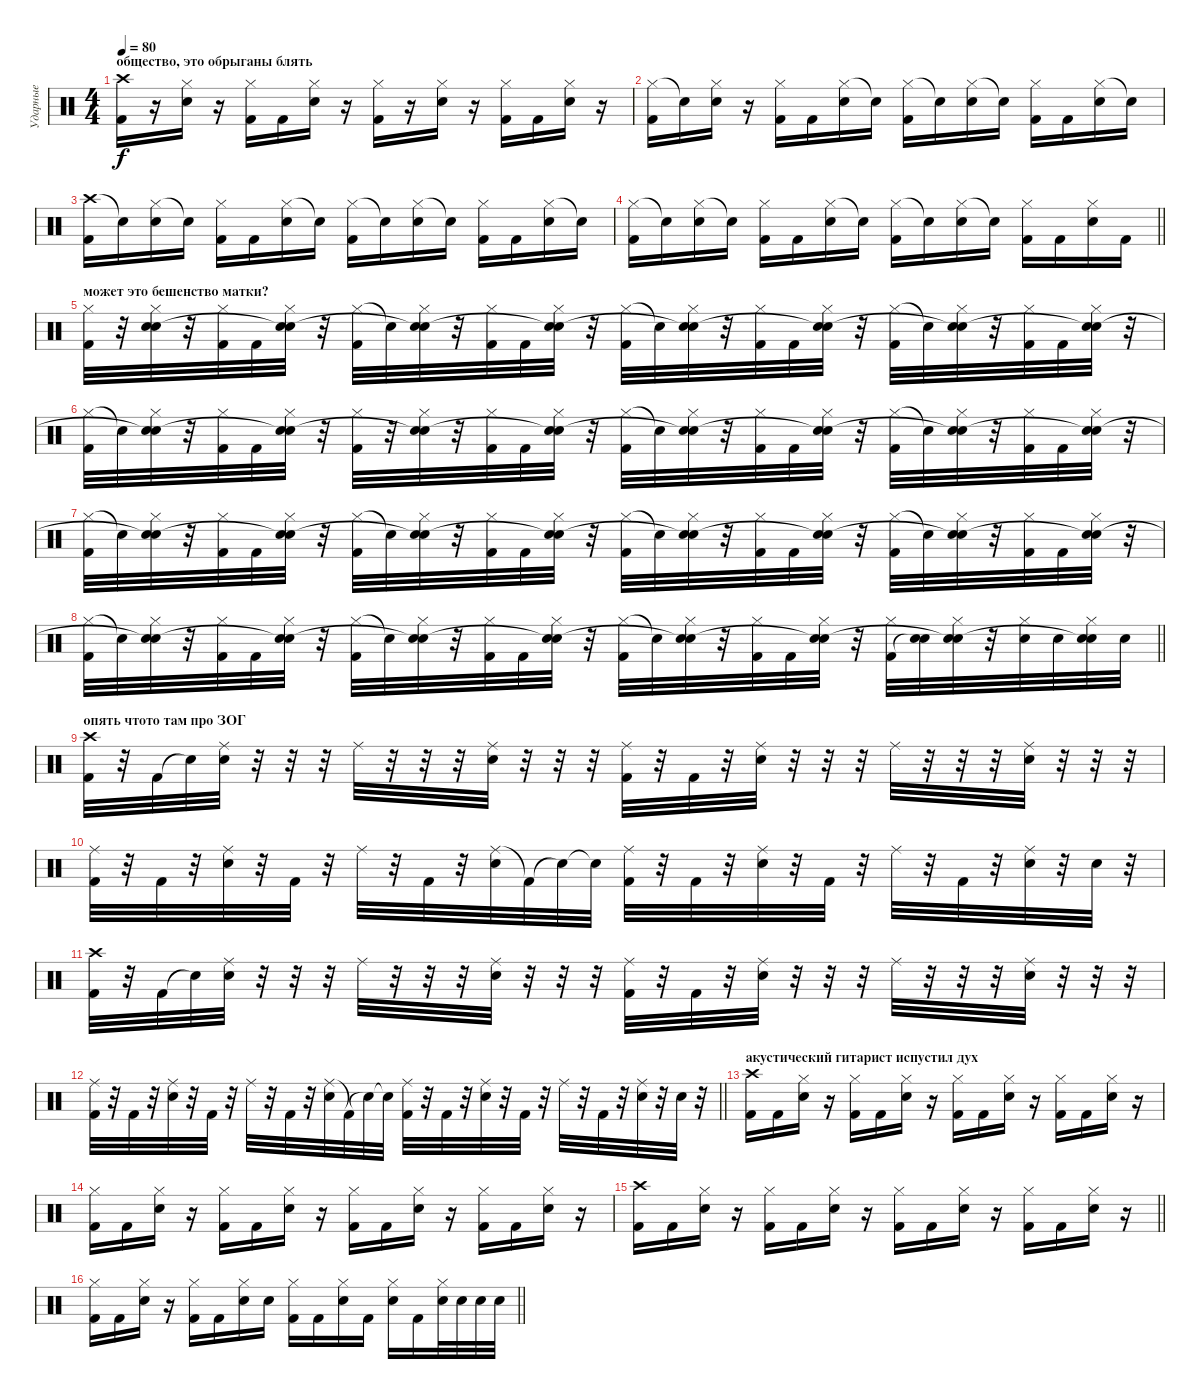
\track ("Ударные" "Ударные") {instrument percussion}
\staff {score}
\articulation defaults
\ts (4 4)
\section ("" "общество, это обрыганы блять")
\tempo 80
\clef neutral
\ks c
("Crash high (hit)" "Kick (hit) 2").16{dy f} r.16 ("Hi-Hat (closed)" "Snare (hit) 2").16 r.16 ("Hi-Hat (closed)" "Kick (hit) 2").16 "Kick (hit) 2".16 ("Hi-Hat (closed)" "Snare (hit) 2").16 r.16 ("Hi-Hat (closed)" "Kick (hit) 2").16 r.16 ("Hi-Hat (closed)" "Snare (hit) 2").16 r.16 ("Hi-Hat (closed)" "Kick (hit) 2").16 "Kick (hit) 2".16 ("Hi-Hat (closed)" "Snare (hit) 2").16 r.16 |
("Hi-Hat (closed)" "Kick (hit) 2").16 "Snare (hit)"{t}.16 ("Hi-Hat (closed)" "Snare (hit) 2").16 r.16 ("Hi-Hat (closed)" "Kick (hit) 2").16 "Kick (hit) 2".16 ("Hi-Hat (closed)" "Snare (hit) 2").16 "Snare (hit)"{t}.16 ("Hi-Hat (closed)" "Kick (hit) 2").16 "Snare (hit) 2"{t}.16 ("Hi-Hat (closed)" "Snare (hit) 2").16 "Snare (hit)"{t}.16 ("Hi-Hat (closed)" "Kick (hit) 2").16 "Kick (hit) 2".16 ("Hi-Hat (closed)" "Snare (hit) 2").16 "Snare (hit)"{t}.16 |
("Crash high (hit)" "Kick (hit) 2").16 "Snare (hit)"{t}.16 ("Hi-Hat (closed)" "Snare (hit) 2").16 "Snare (hit)"{t}.16 ("Hi-Hat (closed)" "Kick (hit) 2").16 "Kick (hit) 2".16 ("Hi-Hat (closed)" "Snare (hit) 2").16 "Snare (hit)"{t}.16 ("Hi-Hat (closed)" "Kick (hit) 2").16 "Snare (hit) 2"{t}.16 ("Hi-Hat (closed)" "Snare (hit) 2").16 "Snare (hit)"{t}.16 ("Hi-Hat (closed)" "Kick (hit) 2").16 "Kick (hit) 2".16 ("Hi-Hat (closed)" "Snare (hit) 2").16 "Snare (hit)"{t}.16 |
\barLineRight lightlight
("Hi-Hat (closed)" "Kick (hit) 2").16 "Snare (hit)"{t}.16 ("Hi-Hat (closed)" "Snare (hit) 2").16 "Snare (hit)"{t}.16 ("Hi-Hat (closed)" "Kick (hit) 2").16 "Kick (hit) 2".16 ("Hi-Hat (closed)" "Snare (hit) 2").16 "Snare (hit)"{t}.16 ("Hi-Hat (closed)" "Kick (hit) 2").16 "Snare (hit) 2"{t}.16 ("Hi-Hat (closed)" "Snare (hit) 2").16 "Snare (hit)"{t}.16 ("Hi-Hat (closed)" "Kick (hit) 2").16 "Kick (hit) 2".16 ("Hi-Hat (closed)" "Snare (hit) 2").16 "Kick (hit) 2".16 |
\section ("" "может это бешенство матки?")
("Hi-Hat (closed)" "Kick (hit) 2").32 r.32 ("Hi-Hat (closed)" "Snare (hit) 2" "Snare (hit)").32 r.32 ("Hi-Hat (closed)" "Kick (hit) 2").32 "Kick (hit) 2".32 ("Hi-Hat (closed)" "Snare (hit) 2" "Snare (hit)"{t}).32 r.32 ("Hi-Hat (closed)" "Kick (hit) 2").32 "Snare (hit)"{t}.32 ("Hi-Hat (closed)" "Snare (hit) 2" "Snare (hit)"{t}).32 r.32 ("Hi-Hat (closed)" "Kick (hit) 2").32 "Kick (hit) 2".32 ("Hi-Hat (closed)" "Snare (hit) 2" "Snare (hit)"{t}).32 r.32 ("Hi-Hat (closed)" "Kick (hit) 2").32 "Snare (hit)"{t}.32 ("Hi-Hat (closed)" "Snare (hit) 2" "Snare (hit)"{t}).32 r.32 ("Hi-Hat (closed)" "Kick (hit) 2").32 "Kick (hit) 2".32 ("Hi-Hat (closed)" "Snare (hit) 2" "Snare (hit)"{t}).32 r.32 ("Hi-Hat (closed)" "Kick (hit) 2").32 "Snare (hit)"{t}.32 ("Hi-Hat (closed)" "Snare (hit) 2" "Snare (hit)"{t}).32 r.32 ("Hi-Hat (closed)" "Kick (hit) 2").32 "Kick (hit) 2".32 ("Hi-Hat (closed)" "Snare (hit) 2" "Snare (hit)"{t}).32 r.32 |
("Hi-Hat (closed)" "Kick (hit) 2").32 "Snare (hit)"{t}.32 ("Hi-Hat (closed)" "Snare (hit) 2" "Snare (hit)"{t}).32 r.32 ("Hi-Hat (closed)" "Kick (hit) 2").32 "Kick (hit) 2".32 ("Hi-Hat (closed)" "Snare (hit) 2" "Snare (hit)"{t}).32 r.32 ("Hi-Hat (closed)" "Kick (hit) 2").32 r.32 ("Hi-Hat (closed)" "Snare (hit) 2" "Snare (hit)"{t}).32 r.32 ("Hi-Hat (closed)" "Kick (hit) 2").32 "Kick (hit) 2".32 ("Hi-Hat (closed)" "Snare (hit) 2" "Snare (hit)"{t}).32 r.32 ("Hi-Hat (closed)" "Kick (hit) 2").32 "Snare (hit)"{t}.32 ("Hi-Hat (closed)" "Snare (hit) 2" "Snare (hit)"{t}).32 r.32 ("Hi-Hat (closed)" "Kick (hit) 2").32 "Kick (hit) 2".32 ("Hi-Hat (closed)" "Snare (hit) 2" "Snare (hit)"{t}).32 r.32 ("Hi-Hat (closed)" "Kick (hit) 2").32 "Snare (hit)"{t}.32 ("Hi-Hat (closed)" "Snare (hit) 2" "Snare (hit)"{t}).32 r.32 ("Hi-Hat (closed)" "Kick (hit) 2").32 "Kick (hit) 2".32 ("Hi-Hat (closed)" "Snare (hit) 2" "Snare (hit)"{t}).32 r.32 |
("Hi-Hat (closed)" "Kick (hit) 2").32 "Snare (hit)"{t}.32 ("Hi-Hat (closed)" "Snare (hit) 2" "Snare (hit)"{t}).32 r.32 ("Hi-Hat (closed)" "Kick (hit) 2").32 "Kick (hit) 2".32 ("Hi-Hat (closed)" "Snare (hit) 2" "Snare (hit)"{t}).32 r.32 ("Hi-Hat (closed)" "Kick (hit) 2").32 "Snare (hit)"{t}.32 ("Hi-Hat (closed)" "Snare (hit) 2" "Snare (hit)"{t}).32 r.32 ("Hi-Hat (closed)" "Kick (hit) 2").32 "Kick (hit) 2".32 ("Hi-Hat (closed)" "Snare (hit) 2" "Snare (hit)"{t}).32 r.32 ("Hi-Hat (closed)" "Kick (hit) 2").32 "Snare (hit)"{t}.32 ("Hi-Hat (closed)" "Snare (hit) 2" "Snare (hit)"{t}).32 r.32 ("Hi-Hat (closed)" "Kick (hit) 2").32 "Kick (hit) 2".32 ("Hi-Hat (closed)" "Snare (hit) 2" "Snare (hit)"{t}).32 r.32 ("Hi-Hat (closed)" "Kick (hit) 2").32 "Snare (hit)"{t}.32 ("Hi-Hat (closed)" "Snare (hit) 2" "Snare (hit)"{t}).32 r.32 ("Hi-Hat (closed)" "Kick (hit) 2").32 "Kick (hit) 2".32 ("Hi-Hat (closed)" "Snare (hit) 2" "Snare (hit)"{t}).32 r.32 |
\barLineRight lightlight
("Hi-Hat (closed)" "Kick (hit) 2").32 "Snare (hit)"{t}.32 ("Hi-Hat (closed)" "Snare (hit) 2" "Snare (hit)"{t}).32 r.32 ("Hi-Hat (closed)" "Kick (hit) 2").32 "Kick (hit) 2".32 ("Hi-Hat (closed)" "Snare (hit) 2" "Snare (hit)"{t}).32 r.32 ("Hi-Hat (closed)" "Kick (hit) 2").32 "Snare (hit)"{t}.32 ("Hi-Hat (closed)" "Snare (hit) 2" "Snare (hit)"{t}).32 r.32 ("Hi-Hat (closed)" "Kick (hit) 2").32 "Kick (hit) 2".32 ("Hi-Hat (closed)" "Snare (hit) 2" "Snare (hit)"{t}).32 r.32 ("Hi-Hat (closed)" "Kick (hit) 2").32 "Snare (hit)"{t}.32 ("Hi-Hat (closed)" "Snare (hit) 2" "Snare (hit)"{t}).32 r.32 ("Hi-Hat (closed)" "Kick (hit) 2").32 "Kick (hit) 2".32 ("Hi-Hat (closed)" "Snare (hit) 2" "Snare (hit)"{t}).32 r.32 ("Hi-Hat (closed)" "Kick (hit) 2").32 ("Snare (hit) 2" "Snare (hit)"{t}).32 ("Hi-Hat (closed)" "Snare (hit) 2" "Snare (hit)"{t}).32 r.32 ("Hi-Hat (closed)" "Snare (hit) 2").32 "Snare (hit) 2".32 ("Hi-Hat (closed)" "Snare (hit) 2" "Snare (hit)"{t}).32 "Snare (hit) 2".32 |
\section ("" "опять чтото там про ЗОГ")
("Crash high (hit)" "Kick (hit) 2").32 r.32 "Kick (hit) 2".32 "Snare (hit) 2"{t}.32 ("Ride (middle)" "Snare (hit) 2").32 r.32 r.32 r.32 "Ride (middle)".32 r.32 r.32 r.32 ("Ride (middle)" "Snare (hit) 2").32 r.32 r.32 r.32 ("Ride (middle)" "Kick (hit) 2").32 r.32 "Kick (hit) 2".32 r.32 ("Ride (middle)" "Snare (hit) 2").32 r.32 r.32 r.32 "Ride (middle)".32 r.32 r.32 r.32 ("Ride (middle)" "Snare (hit) 2").32 r.32 r.32 r.32 |
("Ride (middle)" "Kick (hit) 2").32 r.32 "Kick (hit) 2".32 r.32 ("Ride (middle)" "Snare (hit) 2").32 r.32 "Kick (hit) 2".32 r.32 "Ride (middle)".32 r.32 "Kick (hit) 2".32 r.32 ("Ride (middle)" "Snare (hit) 2").32 "Kick (hit) 2"{t}.32 "Snare (hit)"{t}.32 "Snare (hit)"{t}.32 ("Ride (middle)" "Kick (hit) 2").32 r.32 "Kick (hit) 2".32 r.32 ("Ride (middle)" "Snare (hit) 2").32 r.32 "Kick (hit) 2".32 r.32 "Ride (middle)".32 r.32 "Kick (hit) 2".32 r.32 ("Ride (middle)" "Snare (hit) 2").32 r.32 "Snare (hit) 2".32 r.32 |
("Crash high (hit)" "Kick (hit) 2").32 r.32 "Kick (hit) 2".32 "Snare (hit) 2"{t}.32 ("Ride (middle)" "Snare (hit) 2").32 r.32 r.32 r.32 "Ride (middle)".32 r.32 r.32 r.32 ("Ride (middle)" "Snare (hit) 2").32 r.32 r.32 r.32 ("Ride (middle)" "Kick (hit) 2").32 r.32 "Kick (hit) 2".32 r.32 ("Ride (middle)" "Snare (hit) 2").32 r.32 r.32 r.32 "Ride (middle)".32 r.32 r.32 r.32 ("Ride (middle)" "Snare (hit) 2").32 r.32 r.32 r.32 |
\barLineRight lightlight
("Ride (middle)" "Kick (hit) 2").32 r.32 "Kick (hit) 2".32 r.32 ("Ride (middle)" "Snare (hit) 2").32 r.32 "Kick (hit) 2".32 r.32 "Ride (middle)".32 r.32 "Kick (hit) 2".32 r.32 ("Ride (middle)" "Snare (hit) 2").32 "Kick (hit) 2"{t}.32 "Snare (hit)"{t}.32 "Snare (hit)"{t}.32 ("Ride (middle)" "Kick (hit) 2").32 r.32 "Kick (hit) 2".32 r.32 ("Ride (middle)" "Snare (hit) 2").32 r.32 "Kick (hit) 2".32 r.32 "Ride (middle)".32 r.32 "Kick (hit) 2".32 r.32 ("Ride (middle)" "Snare (hit) 2").32 r.32 "Snare (hit) 2".32 r.32 |
\section ("" "акустический гитарист испустил дух")
("Crash high (hit)" "Kick (hit) 2").16 "Kick (hit) 2".16 ("Hi-Hat (closed)" "Snare (hit) 2").16 r.16 ("Hi-Hat (closed)" "Kick (hit) 2").16 "Kick (hit) 2".16 ("Hi-Hat (closed)" "Snare (hit) 2").16 r.16 ("Hi-Hat (closed)" "Kick (hit) 2").16 "Kick (hit) 2".16 ("Hi-Hat (closed)" "Snare (hit) 2").16 r.16 ("Hi-Hat (closed)" "Kick (hit) 2").16 "Kick (hit) 2".16 ("Hi-Hat (closed)" "Snare (hit) 2").16 r.16 |
("Hi-Hat (closed)" "Kick (hit) 2").16 "Kick (hit) 2".16 ("Hi-Hat (closed)" "Snare (hit) 2").16 r.16 ("Hi-Hat (closed)" "Kick (hit) 2").16 "Kick (hit) 2".16 ("Hi-Hat (closed)" "Snare (hit) 2").16 r.16 ("Hi-Hat (closed)" "Kick (hit) 2").16 "Kick (hit) 2".16 ("Hi-Hat (closed)" "Snare (hit) 2").16 r.16 ("Hi-Hat (closed)" "Kick (hit) 2").16 "Kick (hit) 2".16 ("Hi-Hat (closed)" "Snare (hit) 2").16 r.16 |
\barLineRight lightlight
("Crash high (hit)" "Kick (hit) 2").16 "Kick (hit) 2".16 ("Hi-Hat (closed)" "Snare (hit) 2").16 r.16 ("Hi-Hat (closed)" "Kick (hit) 2").16 "Kick (hit) 2".16 ("Hi-Hat (closed)" "Snare (hit) 2").16 r.16 ("Hi-Hat (closed)" "Kick (hit) 2").16 "Kick (hit) 2".16 ("Hi-Hat (closed)" "Snare (hit) 2").16 r.16 ("Hi-Hat (closed)" "Kick (hit) 2").16 "Kick (hit) 2".16 ("Hi-Hat (closed)" "Snare (hit) 2").16 r.16 |
\barLineRight lightlight
("Hi-Hat (closed)" "Kick (hit) 2").16 "Kick (hit) 2".16 ("Hi-Hat (closed)" "Snare (hit) 2").16 r.16 ("Hi-Hat (closed)" "Kick (hit) 2").16 "Kick (hit) 2".16 ("Hi-Hat (closed)" "Snare (hit) 2").16 "Snare (hit) 2".16 ("Hi-Hat (closed)" "Kick (hit) 2").16 "Kick (hit) 2".16 ("Hi-Hat (closed)" "Snare (hit) 2").16 "Kick (hit) 2".16 ("Hi-Hat (closed)" "Snare (hit) 2").16 "Kick (hit) 2".16 ("Hi-Hat (closed)" "Snare (hit) 2").32 "Snare (hit) 2".32 "Snare (hit) 2".32 "Snare (hit) 2".32
